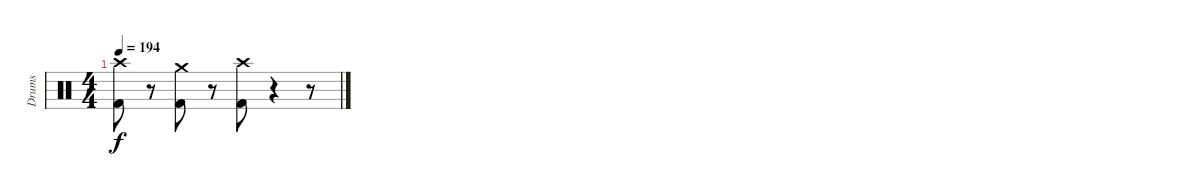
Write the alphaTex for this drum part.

\track ("Drums" "Drums") {instrument percussion}
\staff {score}
\articulation defaults
\ts (4 4)
\tempo 194
\clef neutral
\ks c
("Crash high (hit)" "Kick (hit) 2").8{dy f} r.8 ("Crash medium (hit)" "Kick (hit) 2").8 r.8 ("Crash high (hit)" "Kick (hit) 2").8 r.4 r.8
